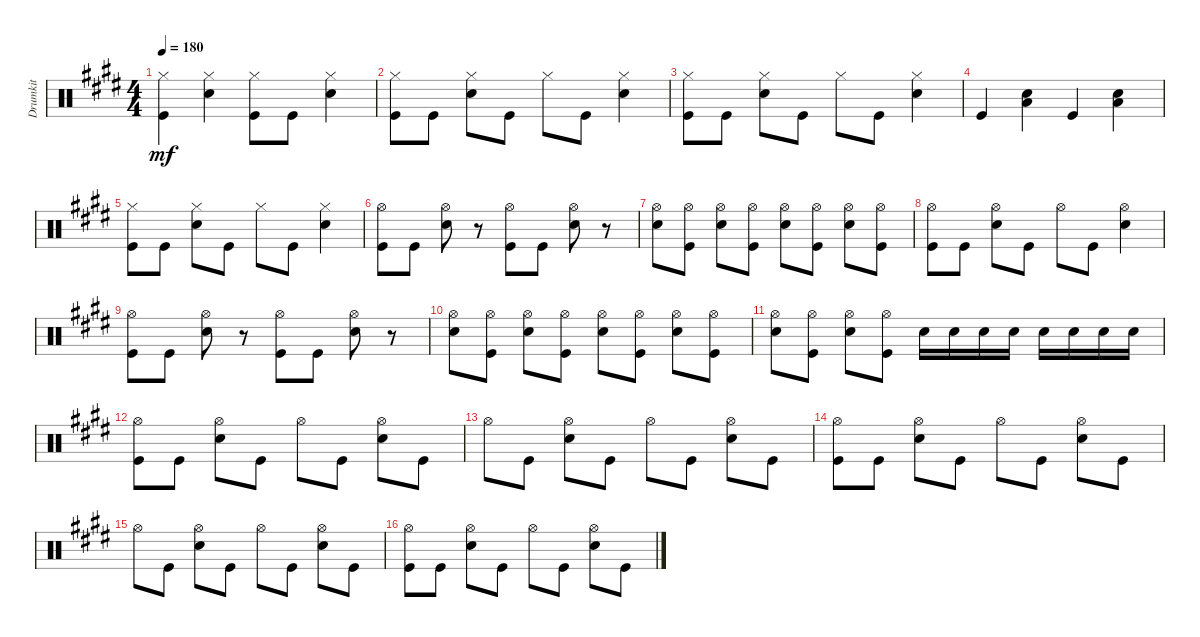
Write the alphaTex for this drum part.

\track ("Drumkit" "Drumkit") {instrument percussion}
\staff {score}
\articulation defaults
\ts (4 4)
\tempo 180
\clef neutral
\ks e
("Kick (hit)" "Hi-Hat (closed)").4{dy mf} ("Snare (hit) 2" "Hi-Hat (closed)").4 ("Kick (hit)" "Hi-Hat (closed)").8 "Kick (hit)".8 ("Snare (hit) 2" "Hi-Hat (closed)").4 |
("Kick (hit)" "Hi-Hat (closed)").8 "Kick (hit)".8 ("Snare (hit) 2" "Hi-Hat (closed)").8 "Kick (hit)".8 "Hi-Hat (closed)".8 "Kick (hit)".8 ("Snare (hit) 2" "Hi-Hat (closed)").4 |
("Kick (hit)" "Hi-Hat (closed)").8 "Kick (hit)".8 ("Snare (hit) 2" "Hi-Hat (closed)").8 "Kick (hit)".8 "Hi-Hat (closed)".8 "Kick (hit)".8 ("Snare (hit) 2" "Hi-Hat (closed)").4 |
"Kick (hit)".4 ("Snare (hit) 2" "Low Floor Tom (hit)").4 "Kick (hit)".4 ("Snare (hit) 2" "Low Floor Tom (hit)").4 |
("Kick (hit)" "Hi-Hat (closed)").8 "Kick (hit)".8 ("Snare (hit) 2" "Hi-Hat (closed)").8 "Kick (hit)".8 "Hi-Hat (closed)".8 "Kick (hit)".8 ("Snare (hit) 2" "Hi-Hat (closed)").4 |
("Hi-Hat (open)" "Kick (hit)").8 "Kick (hit)".8 ("Snare (hit) 2" "Hi-Hat (open)").8 r.8 ("Kick (hit)" "Hi-Hat (open)").8 "Kick (hit)".8 ("Snare (hit) 2" "Hi-Hat (open)").8 r.8 |
("Snare (hit) 2" "Hi-Hat (open)").8 ("Kick (hit)" "Hi-Hat (open)").8 ("Snare (hit) 2" "Hi-Hat (open)").8 ("Kick (hit)" "Hi-Hat (open)").8 ("Snare (hit) 2" "Hi-Hat (open)").8 ("Kick (hit)" "Hi-Hat (open)").8 ("Snare (hit) 2" "Hi-Hat (open)").8 ("Kick (hit)" "Hi-Hat (open)").8 |
("Kick (hit)" "Hi-Hat (open)").8 "Kick (hit)".8 ("Snare (hit) 2" "Hi-Hat (open)").8 "Kick (hit)".8 "Hi-Hat (open)".8 "Kick (hit)".8 ("Snare (hit) 2" "Hi-Hat (open)").4 |
("Hi-Hat (open)" "Kick (hit)").8 "Kick (hit)".8 ("Snare (hit) 2" "Hi-Hat (open)").8 r.8 ("Kick (hit)" "Hi-Hat (open)").8 "Kick (hit)".8 ("Snare (hit) 2" "Hi-Hat (open)").8 r.8 |
("Snare (hit) 2" "Hi-Hat (open)").8 ("Kick (hit)" "Hi-Hat (open)").8 ("Snare (hit) 2" "Hi-Hat (open)").8 ("Kick (hit)" "Hi-Hat (open)").8 ("Snare (hit) 2" "Hi-Hat (open)").8 ("Kick (hit)" "Hi-Hat (open)").8 ("Snare (hit) 2" "Hi-Hat (open)").8 ("Kick (hit)" "Hi-Hat (open)").8 |
("Snare (hit) 2" "Hi-Hat (open)").8 ("Kick (hit)" "Hi-Hat (open)").8 ("Snare (hit) 2" "Hi-Hat (open)").8 ("Kick (hit)" "Hi-Hat (open)").8 "Snare (hit) 2".16 "Snare (hit) 2".16 "Snare (hit) 2".16 "Snare (hit) 2".16 "Snare (hit) 2".16 "Snare (hit) 2".16 "Snare (hit) 2".16 "Snare (hit) 2".16 |
("Kick (hit)" "Hi-Hat (open)").8 "Kick (hit)".8 ("Snare (hit) 2" "Hi-Hat (open)").8 "Kick (hit)".8 "Hi-Hat (open)".8 "Kick (hit)".8 ("Snare (hit) 2" "Hi-Hat (open)").8 "Kick (hit)".8 |
"Hi-Hat (open)".8 "Kick (hit)".8 ("Snare (hit) 2" "Hi-Hat (open)").8 "Kick (hit)".8 "Hi-Hat (open)".8 "Kick (hit)".8 ("Snare (hit) 2" "Hi-Hat (open)").8 "Kick (hit)".8 |
("Kick (hit)" "Hi-Hat (open)").8 "Kick (hit)".8 ("Snare (hit) 2" "Hi-Hat (open)").8 "Kick (hit)".8 "Hi-Hat (open)".8 "Kick (hit)".8 ("Snare (hit) 2" "Hi-Hat (open)").8 "Kick (hit)".8 |
"Hi-Hat (open)".8 "Kick (hit)".8 ("Snare (hit) 2" "Hi-Hat (open)").8 "Kick (hit)".8 "Hi-Hat (open)".8 "Kick (hit)".8 ("Snare (hit) 2" "Hi-Hat (open)").8 "Kick (hit)".8 |
("Kick (hit)" "Hi-Hat (open)").8 "Kick (hit)".8 ("Snare (hit) 2" "Hi-Hat (open)").8 "Kick (hit)".8 "Hi-Hat (open)".8 "Kick (hit)".8 ("Snare (hit) 2" "Hi-Hat (open)").8 "Kick (hit)".8
